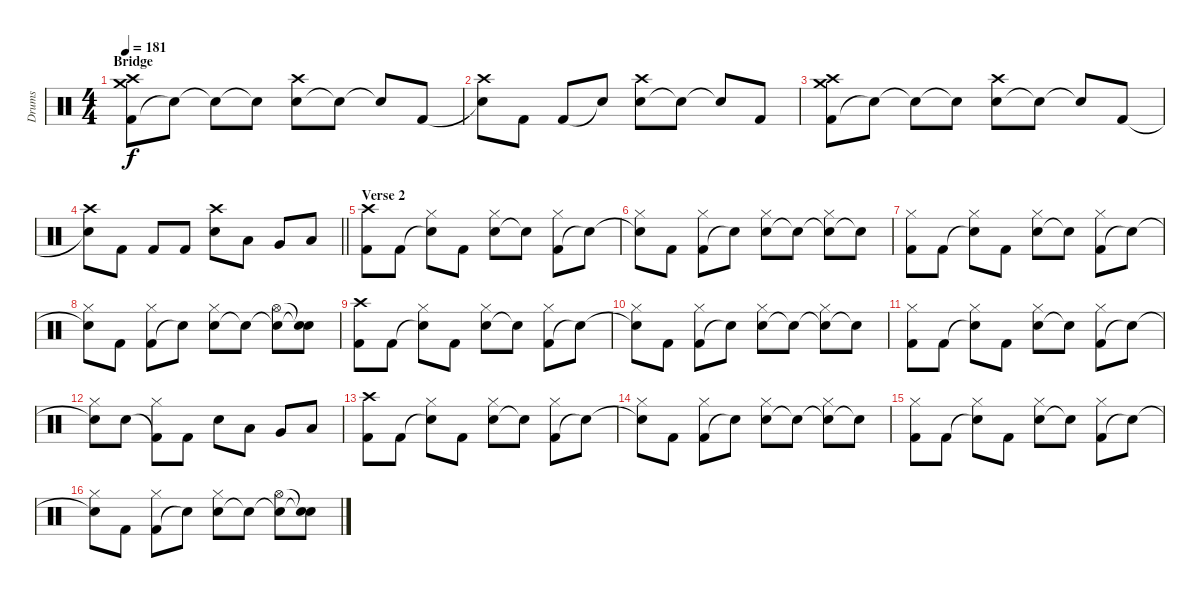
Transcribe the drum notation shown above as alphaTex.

\track ("Drums" "Drums") {instrument percussion}
\staff {score}
\articulation defaults
\ts (4 4)
\section ("" "Bridge")
\tempo 181
\clef neutral
\ks c
("Kick (hit) 2" "Crash high (hit)" "Crash medium (hit)").8{dy f} "Snare (hit)"{t}.8 "Snare (hit)"{t}.8 "Snare (hit)"{t}.8 ("Electric Snare (hit)" "Crash high (hit)").8 "Snare (hit)"{t}.8 "Snare (hit)"{t}.8 "Kick (hit) 2".8 |
("Snare (hit)"{t} "Crash high (hit)").8 "Kick (hit) 2".8 "Kick (hit) 2".8 "Snare (hit)"{t}.8 ("Electric Snare (hit)" "Crash high (hit)").8 "Snare (hit)"{t}.8 "Snare (hit)"{t}.8 "Kick (hit) 2".8 |
("Kick (hit) 2" "Crash high (hit)" "Crash medium (hit)").8 "Snare (hit)"{t}.8 "Snare (hit)"{t}.8 "Snare (hit)"{t}.8 ("Electric Snare (hit)" "Crash high (hit)").8 "Snare (hit)"{t}.8 "Snare (hit)"{t}.8 "Kick (hit) 2".8 |
\barLineRight lightlight
("Snare (hit)"{t} "Crash high (hit)").8 "Kick (hit) 2".8 "Kick (hit) 2".8 "Kick (hit) 2".8 ("Electric Snare (hit)" "Crash high (hit)").8 "Low Tom (hit)".8 "Very Low Tom (hit)".8 "Low Floor Tom (hit)".8 |
\section ("" "Verse 2")
("Kick (hit) 2" "Crash high (hit)").8 "Kick (hit) 2".8 ("Snare (hit)"{t} "Hi-Hat (closed)").8 "Kick (hit) 2".8 ("Electric Snare (hit)" "Hi-Hat (closed)").8 "Snare (hit)"{t}.8 ("Kick (hit) 2" "Hi-Hat (closed)").8 "Snare (hit)"{t}.8 |
("Snare (hit)"{t} "Hi-Hat (closed)").8 "Kick (hit) 2".8 ("Kick (hit) 2" "Hi-Hat (closed)").8 "Snare (hit)"{t}.8 ("Electric Snare (hit)" "Hi-Hat (closed)").8 "Snare (hit)"{t}.8 ("Snare (hit)"{t} "Hi-Hat (closed)").8 "Snare (hit)"{t}.8 |
("Kick (hit) 2" "Hi-Hat (closed)").8 "Kick (hit) 2".8 ("Snare (hit)"{t} "Hi-Hat (closed)").8 "Kick (hit) 2".8 ("Electric Snare (hit)" "Hi-Hat (closed)").8 "Snare (hit)"{t}.8 ("Kick (hit) 2" "Hi-Hat (closed)").8 "Snare (hit)"{t}.8 |
("Snare (hit)"{t} "Hi-Hat (closed)").8 "Kick (hit) 2".8 ("Kick (hit) 2" "Hi-Hat (closed)").8 "Snare (hit)"{t}.8 ("Electric Snare (hit)" "Hi-Hat (closed)").8 "Snare (hit)"{t}.8 ("Snare (hit)"{t} "Hi-Hat (open)").8 ("Snare (hit)"{t} "Snare (hit)"{t}).8 |
("Kick (hit) 2" "Crash high (hit)").8 "Kick (hit) 2".8 ("Snare (hit)"{t} "Hi-Hat (closed)").8 "Kick (hit) 2".8 ("Electric Snare (hit)" "Hi-Hat (closed)").8 "Snare (hit)"{t}.8 ("Kick (hit) 2" "Hi-Hat (closed)").8 "Snare (hit)"{t}.8 |
("Snare (hit)"{t} "Hi-Hat (closed)").8 "Kick (hit) 2".8 ("Kick (hit) 2" "Hi-Hat (closed)").8 "Snare (hit)"{t}.8 ("Electric Snare (hit)" "Hi-Hat (closed)").8 "Snare (hit)"{t}.8 ("Snare (hit)"{t} "Hi-Hat (closed)").8 "Snare (hit)"{t}.8 |
("Kick (hit) 2" "Hi-Hat (closed)").8 "Kick (hit) 2".8 ("Snare (hit)"{t} "Hi-Hat (closed)").8 "Kick (hit) 2".8 ("Electric Snare (hit)" "Hi-Hat (closed)").8 "Snare (hit)"{t}.8 ("Kick (hit) 2" "Hi-Hat (closed)").8 "Snare (hit)"{t}.8 |
("Snare (hit)"{t} "Hi-Hat (closed)").8 "Electric Snare (hit)".8 ("Kick (hit) 2"{t} "Hi-Hat (closed)").8 "Kick (hit) 2".8 "Electric Snare (hit)".8 "Low Tom (hit)".8 "Very Low Tom (hit)".8 "Low Floor Tom (hit)".8 |
("Kick (hit) 2" "Crash high (hit)").8 "Kick (hit) 2".8 ("Snare (hit)"{t} "Hi-Hat (closed)").8 "Kick (hit) 2".8 ("Electric Snare (hit)" "Hi-Hat (closed)").8 "Snare (hit)"{t}.8 ("Kick (hit) 2" "Hi-Hat (closed)").8 "Snare (hit)"{t}.8 |
("Snare (hit)"{t} "Hi-Hat (closed)").8 "Kick (hit) 2".8 ("Kick (hit) 2" "Hi-Hat (closed)").8 "Snare (hit)"{t}.8 ("Electric Snare (hit)" "Hi-Hat (closed)").8 "Snare (hit)"{t}.8 ("Snare (hit)"{t} "Hi-Hat (closed)").8 "Snare (hit)"{t}.8 |
("Kick (hit) 2" "Hi-Hat (closed)").8 "Kick (hit) 2".8 ("Snare (hit)"{t} "Hi-Hat (closed)").8 "Kick (hit) 2".8 ("Electric Snare (hit)" "Hi-Hat (closed)").8 "Snare (hit)"{t}.8 ("Kick (hit) 2" "Hi-Hat (closed)").8 "Snare (hit)"{t}.8 |
("Snare (hit)"{t} "Hi-Hat (closed)").8 "Kick (hit) 2".8 ("Kick (hit) 2" "Hi-Hat (closed)").8 "Snare (hit)"{t}.8 ("Electric Snare (hit)" "Hi-Hat (closed)").8 "Snare (hit)"{t}.8 ("Snare (hit)"{t} "Hi-Hat (open)").8 ("Snare (hit)"{t} "Snare (hit)"{t}).8
